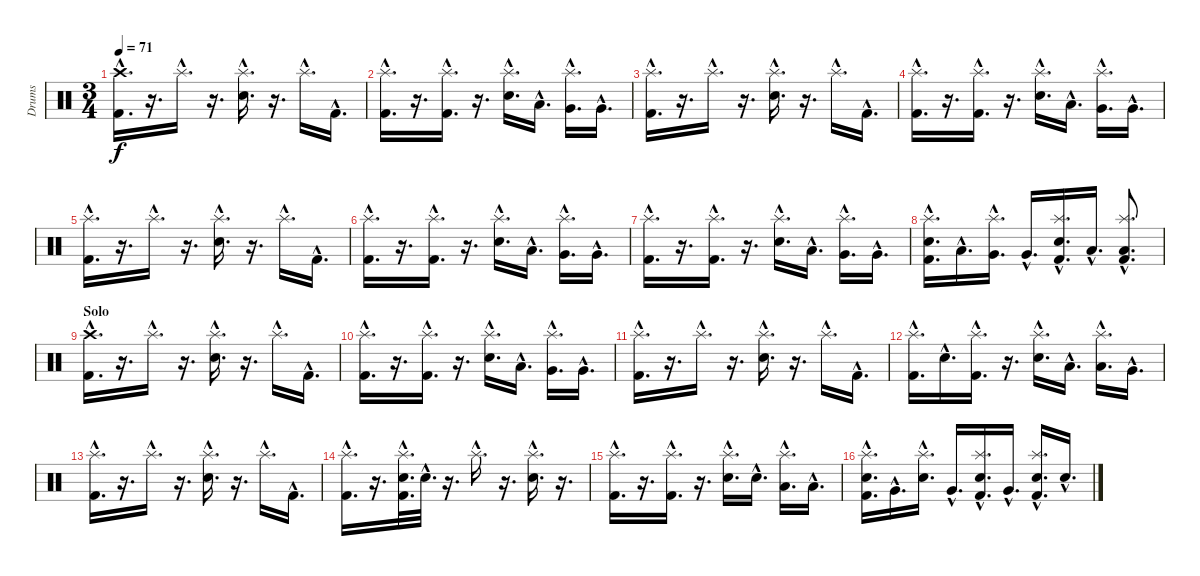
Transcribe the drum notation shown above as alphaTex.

\track ("Drums" "Drums") {instrument percussion}
\staff {score}
\articulation defaults
\ts (3 4)
\tempo 71
\clef neutral
\ks c
("Crash high (hit)"{hac} "Kick (hit) 2"{hac}).16{d dy f} r.16{d} "Splash (hit)"{hac}.16{d} r.16{d} ("Splash (hit)"{hac} "Snare (hit) 2"{hac}).16{d} r.16{d} "Splash (hit)"{hac}.16{d} "Kick (hit) 2"{hac}.16{d} |
("Splash (hit)"{hac} "Kick (hit) 2"{hac}).16{d} r.16{d} ("Splash (hit)"{hac} "Kick (hit) 2"{hac}).16{d} r.16{d} ("Splash (hit)"{hac} "Snare (hit) 2"{hac}).16{d} "Low Tom (hit)"{hac}.16{d} ("Splash (hit)"{hac} "Very Low Tom (hit)"{hac}).16{d} "Very Low Tom (hit)"{hac}.16{d} |
("Splash (hit)"{hac} "Kick (hit) 2"{hac}).16{d} r.16{d} "Splash (hit)"{hac}.16{d} r.16{d} ("Splash (hit)"{hac} "Snare (hit) 2"{hac}).16{d} r.16{d} "Splash (hit)"{hac}.16{d} "Kick (hit) 2"{hac}.16{d} |
("Splash (hit)"{hac} "Kick (hit) 2"{hac}).16{d} r.16{d} ("Splash (hit)"{hac} "Kick (hit) 2"{hac}).16{d} r.16{d} ("Splash (hit)"{hac} "Snare (hit) 2"{hac}).16{d} "Low Tom (hit)"{hac}.16{d} ("Splash (hit)"{hac} "Very Low Tom (hit)"{hac}).16{d} "Very Low Tom (hit)"{hac}.16{d} |
("Splash (hit)"{hac} "Kick (hit) 2"{hac}).16{d} r.16{d} "Splash (hit)"{hac}.16{d} r.16{d} ("Splash (hit)"{hac} "Snare (hit) 2"{hac}).16{d} r.16{d} "Splash (hit)"{hac}.16{d} "Kick (hit) 2"{hac}.16{d} |
("Splash (hit)"{hac} "Kick (hit) 2"{hac}).16{d} r.16{d} ("Splash (hit)"{hac} "Kick (hit) 2"{hac}).16{d} r.16{d} ("Splash (hit)"{hac} "Snare (hit) 2"{hac}).16{d} "Low Tom (hit)"{hac}.16{d} ("Splash (hit)"{hac} "Very Low Tom (hit)"{hac}).16{d} "Very Low Tom (hit)"{hac}.16{d} |
("Splash (hit)"{hac} "Kick (hit) 2"{hac}).16{d} r.16{d} ("Splash (hit)"{hac} "Kick (hit) 2"{hac}).16{d} r.16{d} ("Splash (hit)"{hac} "Snare (hit) 2"{hac}).16{d} "Low Tom (hit)"{hac}.16{d} ("Splash (hit)"{hac} "Very Low Tom (hit)"{hac}).16{d} "Very Low Tom (hit)"{hac}.16{d} |
("Splash (hit)"{hac} "Snare (hit) 2"{hac} "Kick (hit) 2"{hac}).16{d} "Low Tom (hit)"{hac}.16{d} ("Splash (hit)"{hac} "Very Low Tom (hit)"{hac}).16{d} "Very Low Tom (hit)"{hac}.16{d} ("Splash (hit)"{hac} "Snare (hit) 2"{hac} "Kick (hit) 2"{hac}).16{d} "Low Tom (hit)"{hac}.16{d} ("Splash (hit)"{hac} "Low Tom (hit)"{hac} "Kick (hit) 2"{hac}).8{d} |
\section ("" "Solo")
("Crash high (hit)"{hac} "Kick (hit) 2"{hac}).16{d} r.16{d} "Splash (hit)"{hac}.16{d} r.16{d} ("Splash (hit)"{hac} "Snare (hit) 2"{hac}).16{d} r.16{d} "Splash (hit)"{hac}.16{d} "Kick (hit) 2"{hac}.16{d} |
("Splash (hit)"{hac} "Kick (hit) 2"{hac}).16{d} r.16{d} ("Splash (hit)"{hac} "Kick (hit) 2"{hac}).16{d} r.16{d} ("Splash (hit)"{hac} "Snare (hit) 2"{hac}).16{d} "Low Tom (hit)"{hac}.16{d} ("Splash (hit)"{hac} "Very Low Tom (hit)"{hac}).16{d} "Very Low Tom (hit)"{hac}.16{d} |
("Splash (hit)"{hac} "Kick (hit) 2"{hac}).16{d} r.16{d} "Splash (hit)"{hac}.16{d} r.16{d} ("Splash (hit)"{hac} "Snare (hit) 2"{hac}).16{d} r.16{d} "Splash (hit)"{hac}.16{d} "Kick (hit) 2"{hac}.16{d} |
("Splash (hit)"{hac} "Kick (hit) 2"{hac}).16{d} "Snare (hit) 2"{hac}.16{d} ("Splash (hit)"{hac} "Kick (hit) 2"{hac}).16{d} r.16{d} ("Splash (hit)"{hac} "Snare (hit) 2"{hac}).16{d} "Low Tom (hit)"{hac}.16{d} ("Splash (hit)"{hac} "Low Tom (hit)"{hac}).16{d} "Very Low Tom (hit)"{hac}.16{d} |
("Splash (hit)"{hac} "Kick (hit) 2"{hac}).16{d} r.16{d} "Splash (hit)"{hac}.16{d} r.16{d} ("Splash (hit)"{hac} "Snare (hit) 2"{hac}).16{d} r.16{d} "Splash (hit)"{hac}.16{d} "Kick (hit) 2"{hac}.16{d} |
("Splash (hit)"{hac} "Kick (hit) 2"{hac}).16{d} r.16{d} ("Splash (hit)"{hac} "Snare (hit) 2"{hac} "Kick (hit) 2"{hac}).32{d} "Snare (hit) 2"{hac}.32{d} r.16{d} "Splash (hit)"{hac}.16{d} r.16{d} ("Splash (hit)"{hac} "Snare (hit) 2"{hac}).16{d} r.16{d} |
("Splash (hit)"{hac} "Kick (hit) 2"{hac}).16{d} r.16{d} ("Splash (hit)"{hac} "Kick (hit) 2"{hac}).16{d} r.16{d} ("Splash (hit)"{hac} "Snare (hit) 2"{hac}).16{d} "Snare (hit) 2"{hac}.16{d} ("Splash (hit)"{hac} "Low Tom (hit)"{hac}).16{d} "Low Tom (hit)"{hac}.16{d} |
("Splash (hit)"{hac} "Snare (hit) 2"{hac} "Kick (hit) 2"{hac}).16{d} "Very Low Tom (hit)"{hac}.16{d} ("Splash (hit)"{hac} "Snare (hit) 2"{hac}).16{d} "Very Low Tom (hit)"{hac}.16{d} ("Splash (hit)"{hac} "Snare (hit) 2"{hac} "Kick (hit) 2"{hac}).16{d} "Very Low Tom (hit)"{hac}.16{d} ("Splash (hit)"{hac} "Snare (hit) 2"{hac} "Kick (hit) 2"{hac}).16{d} "Snare (hit) 2"{hac}.16{d}
